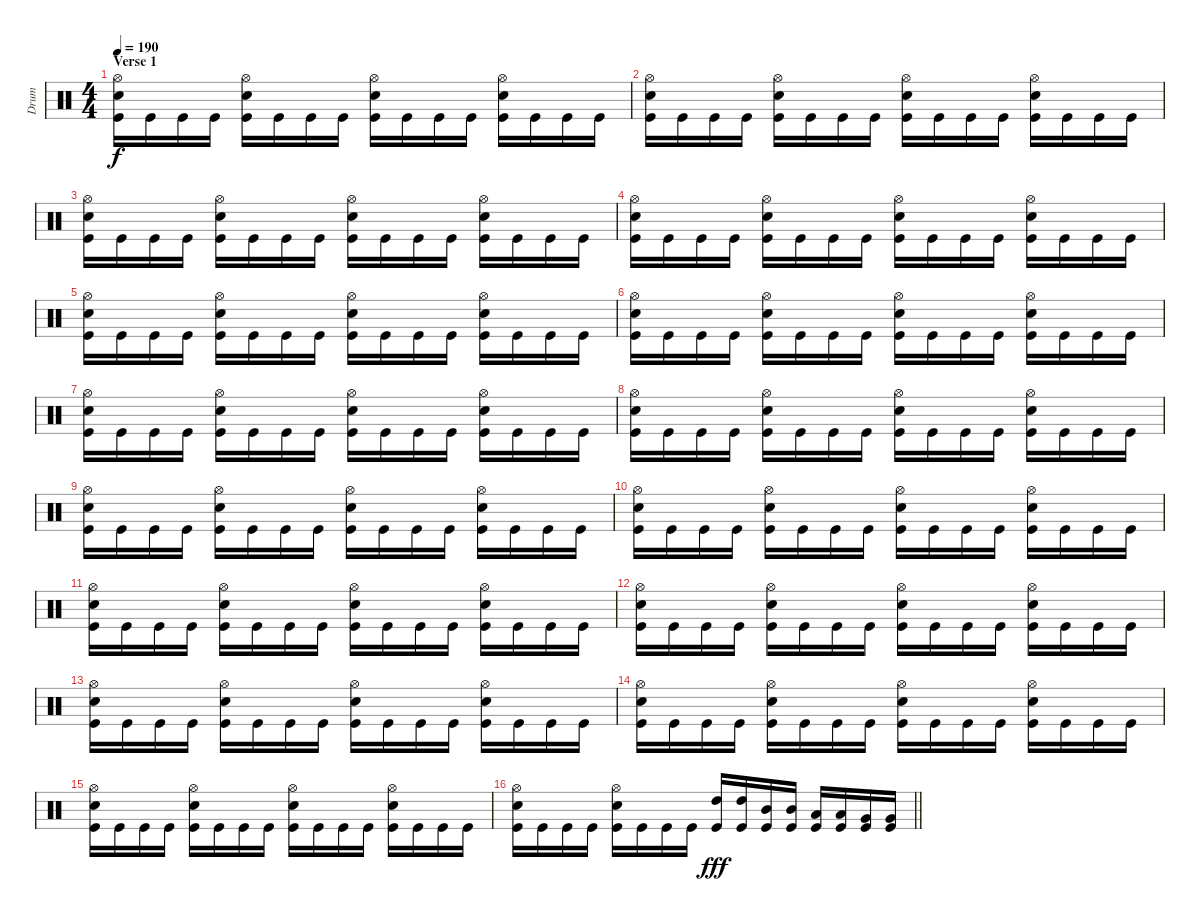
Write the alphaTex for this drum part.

\track ("Drum" "Drum") {instrument percussion}
\staff {score}
\articulation defaults
\ts (4 4)
\section ("" "Verse 1")
\tempo 190
\clef neutral
\ks c
("Hi-Hat (open)" "Snare (hit) 2" "Kick (hit)").16{dy f} "Kick (hit)".16 "Kick (hit)".16 "Kick (hit)".16 ("Hi-Hat (open)" "Snare (hit) 2" "Kick (hit)").16 "Kick (hit)".16 "Kick (hit)".16 "Kick (hit)".16 ("Hi-Hat (open)" "Snare (hit) 2" "Kick (hit)").16 "Kick (hit)".16 "Kick (hit)".16 "Kick (hit)".16 ("Hi-Hat (open)" "Snare (hit) 2" "Kick (hit)").16 "Kick (hit)".16 "Kick (hit)".16 "Kick (hit)".16 |
("Hi-Hat (open)" "Snare (hit) 2" "Kick (hit)").16 "Kick (hit)".16 "Kick (hit)".16 "Kick (hit)".16 ("Hi-Hat (open)" "Snare (hit) 2" "Kick (hit)").16 "Kick (hit)".16 "Kick (hit)".16 "Kick (hit)".16 ("Hi-Hat (open)" "Snare (hit) 2" "Kick (hit)").16 "Kick (hit)".16 "Kick (hit)".16 "Kick (hit)".16 ("Hi-Hat (open)" "Snare (hit) 2" "Kick (hit)").16 "Kick (hit)".16 "Kick (hit)".16 "Kick (hit)".16 |
("Hi-Hat (open)" "Snare (hit) 2" "Kick (hit)").16 "Kick (hit)".16 "Kick (hit)".16 "Kick (hit)".16 ("Hi-Hat (open)" "Snare (hit) 2" "Kick (hit)").16 "Kick (hit)".16 "Kick (hit)".16 "Kick (hit)".16 ("Hi-Hat (open)" "Snare (hit) 2" "Kick (hit)").16 "Kick (hit)".16 "Kick (hit)".16 "Kick (hit)".16 ("Hi-Hat (open)" "Snare (hit) 2" "Kick (hit)").16 "Kick (hit)".16 "Kick (hit)".16 "Kick (hit)".16 |
("Hi-Hat (open)" "Snare (hit) 2" "Kick (hit)").16 "Kick (hit)".16 "Kick (hit)".16 "Kick (hit)".16 ("Hi-Hat (open)" "Snare (hit) 2" "Kick (hit)").16 "Kick (hit)".16 "Kick (hit)".16 "Kick (hit)".16 ("Hi-Hat (open)" "Snare (hit) 2" "Kick (hit)").16 "Kick (hit)".16 "Kick (hit)".16 "Kick (hit)".16 ("Hi-Hat (open)" "Snare (hit) 2" "Kick (hit)").16 "Kick (hit)".16 "Kick (hit)".16 "Kick (hit)".16 |
("Hi-Hat (open)" "Snare (hit) 2" "Kick (hit)").16 "Kick (hit)".16 "Kick (hit)".16 "Kick (hit)".16 ("Hi-Hat (open)" "Snare (hit) 2" "Kick (hit)").16 "Kick (hit)".16 "Kick (hit)".16 "Kick (hit)".16 ("Hi-Hat (open)" "Snare (hit) 2" "Kick (hit)").16 "Kick (hit)".16 "Kick (hit)".16 "Kick (hit)".16 ("Hi-Hat (open)" "Snare (hit) 2" "Kick (hit)").16 "Kick (hit)".16 "Kick (hit)".16 "Kick (hit)".16 |
("Hi-Hat (open)" "Snare (hit) 2" "Kick (hit)").16 "Kick (hit)".16 "Kick (hit)".16 "Kick (hit)".16 ("Hi-Hat (open)" "Snare (hit) 2" "Kick (hit)").16 "Kick (hit)".16 "Kick (hit)".16 "Kick (hit)".16 ("Hi-Hat (open)" "Snare (hit) 2" "Kick (hit)").16 "Kick (hit)".16 "Kick (hit)".16 "Kick (hit)".16 ("Hi-Hat (open)" "Snare (hit) 2" "Kick (hit)").16 "Kick (hit)".16 "Kick (hit)".16 "Kick (hit)".16 |
("Hi-Hat (open)" "Snare (hit) 2" "Kick (hit)").16 "Kick (hit)".16 "Kick (hit)".16 "Kick (hit)".16 ("Hi-Hat (open)" "Snare (hit) 2" "Kick (hit)").16 "Kick (hit)".16 "Kick (hit)".16 "Kick (hit)".16 ("Hi-Hat (open)" "Snare (hit) 2" "Kick (hit)").16 "Kick (hit)".16 "Kick (hit)".16 "Kick (hit)".16 ("Hi-Hat (open)" "Snare (hit) 2" "Kick (hit)").16 "Kick (hit)".16 "Kick (hit)".16 "Kick (hit)".16 |
("Hi-Hat (open)" "Snare (hit) 2" "Kick (hit)").16 "Kick (hit)".16 "Kick (hit)".16 "Kick (hit)".16 ("Hi-Hat (open)" "Snare (hit) 2" "Kick (hit)").16 "Kick (hit)".16 "Kick (hit)".16 "Kick (hit)".16 ("Hi-Hat (open)" "Snare (hit) 2" "Kick (hit)").16 "Kick (hit)".16 "Kick (hit)".16 "Kick (hit)".16 ("Hi-Hat (open)" "Snare (hit) 2" "Kick (hit)").16 "Kick (hit)".16 "Kick (hit)".16 "Kick (hit)".16 |
("Hi-Hat (open)" "Snare (hit) 2" "Kick (hit)").16 "Kick (hit)".16 "Kick (hit)".16 "Kick (hit)".16 ("Hi-Hat (open)" "Snare (hit) 2" "Kick (hit)").16 "Kick (hit)".16 "Kick (hit)".16 "Kick (hit)".16 ("Hi-Hat (open)" "Snare (hit) 2" "Kick (hit)").16 "Kick (hit)".16 "Kick (hit)".16 "Kick (hit)".16 ("Hi-Hat (open)" "Snare (hit) 2" "Kick (hit)").16 "Kick (hit)".16 "Kick (hit)".16 "Kick (hit)".16 |
("Hi-Hat (open)" "Snare (hit) 2" "Kick (hit)").16 "Kick (hit)".16 "Kick (hit)".16 "Kick (hit)".16 ("Hi-Hat (open)" "Snare (hit) 2" "Kick (hit)").16 "Kick (hit)".16 "Kick (hit)".16 "Kick (hit)".16 ("Hi-Hat (open)" "Snare (hit) 2" "Kick (hit)").16 "Kick (hit)".16 "Kick (hit)".16 "Kick (hit)".16 ("Hi-Hat (open)" "Snare (hit) 2" "Kick (hit)").16 "Kick (hit)".16 "Kick (hit)".16 "Kick (hit)".16 |
("Hi-Hat (open)" "Snare (hit) 2" "Kick (hit)").16 "Kick (hit)".16 "Kick (hit)".16 "Kick (hit)".16 ("Hi-Hat (open)" "Snare (hit) 2" "Kick (hit)").16 "Kick (hit)".16 "Kick (hit)".16 "Kick (hit)".16 ("Hi-Hat (open)" "Snare (hit) 2" "Kick (hit)").16 "Kick (hit)".16 "Kick (hit)".16 "Kick (hit)".16 ("Hi-Hat (open)" "Snare (hit) 2" "Kick (hit)").16 "Kick (hit)".16 "Kick (hit)".16 "Kick (hit)".16 |
("Hi-Hat (open)" "Snare (hit) 2" "Kick (hit)").16 "Kick (hit)".16 "Kick (hit)".16 "Kick (hit)".16 ("Hi-Hat (open)" "Snare (hit) 2" "Kick (hit)").16 "Kick (hit)".16 "Kick (hit)".16 "Kick (hit)".16 ("Hi-Hat (open)" "Snare (hit) 2" "Kick (hit)").16 "Kick (hit)".16 "Kick (hit)".16 "Kick (hit)".16 ("Hi-Hat (open)" "Snare (hit) 2" "Kick (hit)").16 "Kick (hit)".16 "Kick (hit)".16 "Kick (hit)".16 |
("Hi-Hat (open)" "Snare (hit) 2" "Kick (hit)").16 "Kick (hit)".16 "Kick (hit)".16 "Kick (hit)".16 ("Hi-Hat (open)" "Snare (hit) 2" "Kick (hit)").16 "Kick (hit)".16 "Kick (hit)".16 "Kick (hit)".16 ("Hi-Hat (open)" "Snare (hit) 2" "Kick (hit)").16 "Kick (hit)".16 "Kick (hit)".16 "Kick (hit)".16 ("Hi-Hat (open)" "Snare (hit) 2" "Kick (hit)").16 "Kick (hit)".16 "Kick (hit)".16 "Kick (hit)".16 |
("Hi-Hat (open)" "Snare (hit) 2" "Kick (hit)").16 "Kick (hit)".16 "Kick (hit)".16 "Kick (hit)".16 ("Hi-Hat (open)" "Snare (hit) 2" "Kick (hit)").16 "Kick (hit)".16 "Kick (hit)".16 "Kick (hit)".16 ("Hi-Hat (open)" "Snare (hit) 2" "Kick (hit)").16 "Kick (hit)".16 "Kick (hit)".16 "Kick (hit)".16 ("Hi-Hat (open)" "Snare (hit) 2" "Kick (hit)").16 "Kick (hit)".16 "Kick (hit)".16 "Kick (hit)".16 |
("Hi-Hat (open)" "Snare (hit) 2" "Kick (hit)").16 "Kick (hit)".16 "Kick (hit)".16 "Kick (hit)".16 ("Hi-Hat (open)" "Snare (hit) 2" "Kick (hit)").16 "Kick (hit)".16 "Kick (hit)".16 "Kick (hit)".16 ("Hi-Hat (open)" "Snare (hit) 2" "Kick (hit)").16 "Kick (hit)".16 "Kick (hit)".16 "Kick (hit)".16 ("Hi-Hat (open)" "Snare (hit) 2" "Kick (hit)").16 "Kick (hit)".16 "Kick (hit)".16 "Kick (hit)".16 |
\barLineRight lightlight
("Hi-Hat (open)" "Snare (hit) 2" "Kick (hit)").16 "Kick (hit)".16 "Kick (hit)".16 "Kick (hit)".16 ("Hi-Hat (open)" "Snare (hit) 2" "Kick (hit)").16 "Kick (hit)".16 "Kick (hit)".16 "Kick (hit)".16 ("High Tom (hit)" "Kick (hit)").16{dy fff} ("High Tom (hit)" "Kick (hit)").16 ("Mid Tom (hit)" "Kick (hit)").16 ("Mid Tom (hit)" "Kick (hit)").16 ("Low Tom (hit)" "Kick (hit)").16 ("Low Tom (hit)" "Kick (hit)").16 ("Very Low Tom (hit)" "Kick (hit)").16 ("Very Low Tom (hit)" "Kick (hit)").16
